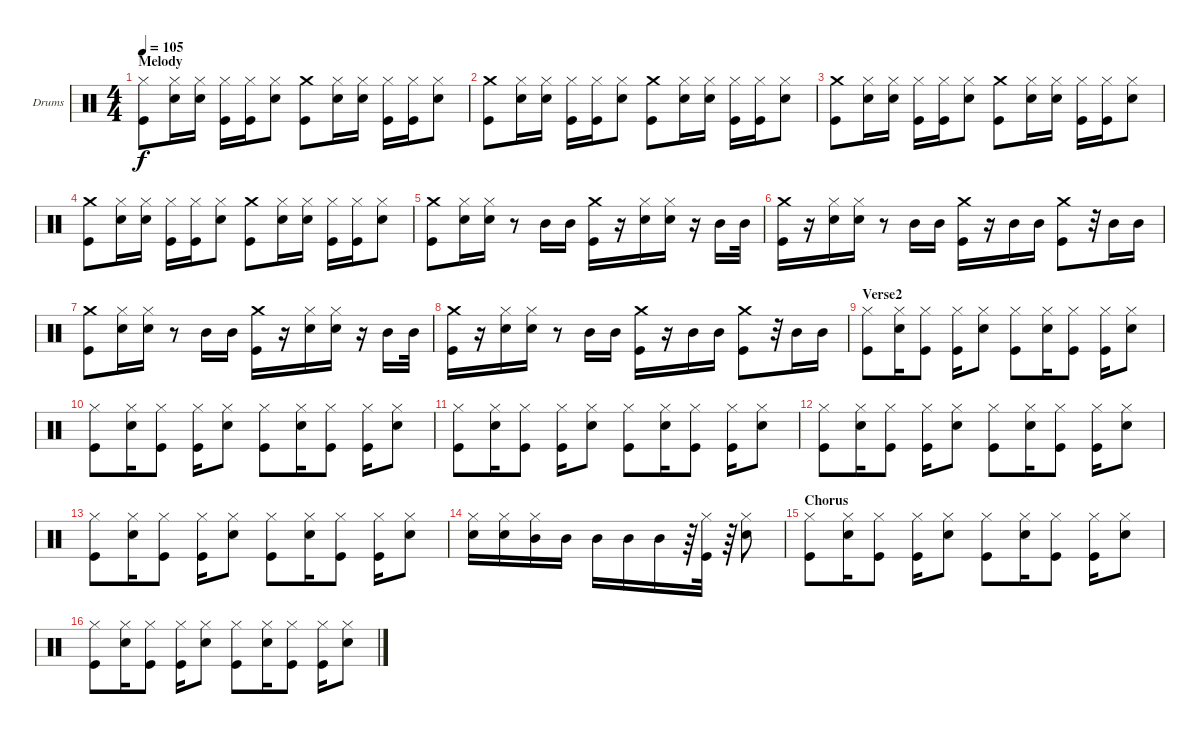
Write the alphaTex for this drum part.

\defaultSystemsLayout 4
\bracketExtendMode groupsimilarinstruments
\firstSystemTrackNameOrientation horizontal
\otherSystemsTrackNameOrientation horizontal
\track ("Drumkit" "Drums") {instrument percussion}
\staff {score}
\articulation defaults
\ts (4 4)
\section ("" "Melody")
\tempo 105
\clef neutral
\ks c
("Hi-Hat (closed)" "Kick (hit)").8{dy f} ("Hi-Hat (closed)" "Snare (hit) 2").16 ("Hi-Hat (closed)" "Snare (hit) 2").16 ("Hi-Hat (closed)" "Kick (hit)").16 ("Hi-Hat (closed)" "Kick (hit)").16 ("Hi-Hat (closed)" "Snare (hit) 2").8 ("Crash medium (hit)" "Kick (hit)").8 ("Hi-Hat (closed)" "Snare (hit) 2").16 ("Hi-Hat (closed)" "Snare (hit) 2").16 ("Hi-Hat (closed)" "Kick (hit)").16 ("Hi-Hat (closed)" "Kick (hit)").16 ("Hi-Hat (closed)" "Snare (hit) 2").8 |
("Crash medium (hit)" "Kick (hit)").8 ("Hi-Hat (closed)" "Snare (hit) 2").16 ("Hi-Hat (closed)" "Snare (hit) 2").16 ("Hi-Hat (closed)" "Kick (hit)").16 ("Hi-Hat (closed)" "Kick (hit)").16 ("Hi-Hat (closed)" "Snare (hit) 2").8 ("Crash medium (hit)" "Kick (hit)").8 ("Hi-Hat (closed)" "Snare (hit) 2").16 ("Hi-Hat (closed)" "Snare (hit) 2").16 ("Hi-Hat (closed)" "Kick (hit)").16 ("Hi-Hat (closed)" "Kick (hit)").16 ("Hi-Hat (closed)" "Snare (hit) 2").8 |
("Crash medium (hit)" "Kick (hit)").8 ("Hi-Hat (closed)" "Snare (hit) 2").16 ("Hi-Hat (closed)" "Snare (hit) 2").16 ("Hi-Hat (closed)" "Kick (hit)").16 ("Hi-Hat (closed)" "Kick (hit)").16 ("Hi-Hat (closed)" "Snare (hit) 2").8 ("Crash medium (hit)" "Kick (hit)").8 ("Hi-Hat (closed)" "Snare (hit) 2").16 ("Hi-Hat (closed)" "Snare (hit) 2").16 ("Hi-Hat (closed)" "Kick (hit)").16 ("Hi-Hat (closed)" "Kick (hit)").16 ("Hi-Hat (closed)" "Snare (hit) 2").8 |
("Crash medium (hit)" "Kick (hit)").8 ("Hi-Hat (closed)" "Snare (hit) 2").16 ("Hi-Hat (closed)" "Snare (hit) 2").16 ("Hi-Hat (closed)" "Kick (hit)").16 ("Hi-Hat (closed)" "Kick (hit)").16 ("Hi-Hat (closed)" "Snare (hit) 2").8 ("Crash medium (hit)" "Kick (hit)").8 ("Hi-Hat (closed)" "Snare (hit) 2").16 ("Hi-Hat (closed)" "Snare (hit) 2").16 ("Hi-Hat (closed)" "Kick (hit)").16 ("Hi-Hat (closed)" "Kick (hit)").16 ("Hi-Hat (closed)" "Snare (hit) 2").8 |
("Crash medium (hit)" "Kick (hit)").8 ("Hi-Hat (closed)" "Snare (hit) 2").16 ("Hi-Hat (closed)" "Snare (hit) 2").16 r.8 "Mid Tom (hit)".16 "Mid Tom (hit)".16 ("Crash medium (hit)" "Kick (hit)").16 r.16 ("Hi-Hat (closed)" "Snare (hit) 2").16 ("Hi-Hat (closed)" "Snare (hit) 2").16 r.16 "Mid Tom (hit)".16 "Mid Tom (hit)".32 |
("Crash medium (hit)" "Kick (hit)").16 r.16 ("Hi-Hat (closed)" "Snare (hit) 2").16 ("Hi-Hat (closed)" "Snare (hit) 2").16 r.8 "Mid Tom (hit)".16 "Mid Tom (hit)".16 ("Crash medium (hit)" "Kick (hit)").16 r.16 "Mid Tom (hit)".16 "Mid Tom (hit)".16 ("Crash medium (hit)" "Kick (hit)").8 r.32 "Mid Tom (hit)".16 "Mid Tom (hit)".16 |
("Crash medium (hit)" "Kick (hit)").8 ("Hi-Hat (closed)" "Snare (hit) 2").16 ("Hi-Hat (closed)" "Snare (hit) 2").16 r.8 "Mid Tom (hit)".16 "Mid Tom (hit)".16 ("Crash medium (hit)" "Kick (hit)").16 r.16 ("Hi-Hat (closed)" "Snare (hit) 2").16 ("Hi-Hat (closed)" "Snare (hit) 2").16 r.16 "Mid Tom (hit)".16 "Mid Tom (hit)".32 |
("Crash medium (hit)" "Kick (hit)").16 r.16 ("Hi-Hat (closed)" "Snare (hit) 2").16 ("Hi-Hat (closed)" "Snare (hit) 2").16 r.8 "Mid Tom (hit)".16 "Mid Tom (hit)".16 ("Crash medium (hit)" "Kick (hit)").16 r.16 "Mid Tom (hit)".16 "Mid Tom (hit)".16 ("Crash medium (hit)" "Kick (hit)").8 r.32 "Mid Tom (hit)".16 "Mid Tom (hit)".16 |
\section ("" "Verse2")
("Hi-Hat (closed)" "Kick (hit)").8 ("Hi-Hat (closed)" "Snare (hit) 2").16 ("Hi-Hat (closed)" "Kick (hit)").8 ("Hi-Hat (closed)" "Kick (hit)").16 ("Hi-Hat (closed)" "Snare (hit) 2").8 ("Hi-Hat (closed)" "Kick (hit)").8 ("Hi-Hat (closed)" "Snare (hit) 2").16 ("Hi-Hat (closed)" "Kick (hit)").8 ("Hi-Hat (closed)" "Kick (hit)").16 ("Hi-Hat (closed)" "Snare (hit) 2").8 |
("Hi-Hat (closed)" "Kick (hit)").8 ("Hi-Hat (closed)" "Snare (hit) 2").16 ("Hi-Hat (closed)" "Kick (hit)").8 ("Hi-Hat (closed)" "Kick (hit)").16 ("Hi-Hat (closed)" "Snare (hit) 2").8 ("Hi-Hat (closed)" "Kick (hit)").8 ("Hi-Hat (closed)" "Snare (hit) 2").16 ("Hi-Hat (closed)" "Kick (hit)").8 ("Hi-Hat (closed)" "Kick (hit)").16 ("Hi-Hat (closed)" "Snare (hit) 2").8 |
("Hi-Hat (closed)" "Kick (hit)").8 ("Hi-Hat (closed)" "Snare (hit) 2").16 ("Hi-Hat (closed)" "Kick (hit)").8 ("Hi-Hat (closed)" "Kick (hit)").16 ("Hi-Hat (closed)" "Snare (hit) 2").8 ("Hi-Hat (closed)" "Kick (hit)").8 ("Hi-Hat (closed)" "Snare (hit) 2").16 ("Hi-Hat (closed)" "Kick (hit)").8 ("Hi-Hat (closed)" "Kick (hit)").16 ("Hi-Hat (closed)" "Snare (hit) 2").8 |
("Hi-Hat (closed)" "Kick (hit)").8 ("Hi-Hat (closed)" "Snare (hit) 2").16 ("Hi-Hat (closed)" "Kick (hit)").8 ("Hi-Hat (closed)" "Kick (hit)").16 ("Hi-Hat (closed)" "Snare (hit) 2").8 ("Hi-Hat (closed)" "Kick (hit)").8 ("Hi-Hat (closed)" "Snare (hit) 2").16 ("Hi-Hat (closed)" "Kick (hit)").8 ("Hi-Hat (closed)" "Kick (hit)").16 ("Hi-Hat (closed)" "Snare (hit) 2").8 |
("Hi-Hat (closed)" "Kick (hit)").8 ("Hi-Hat (closed)" "Snare (hit) 2").16 ("Hi-Hat (closed)" "Kick (hit)").8 ("Hi-Hat (closed)" "Kick (hit)").16 ("Hi-Hat (closed)" "Snare (hit) 2").8 ("Hi-Hat (closed)" "Kick (hit)").8 ("Hi-Hat (closed)" "Snare (hit) 2").16 ("Hi-Hat (closed)" "Kick (hit)").8 ("Hi-Hat (closed)" "Kick (hit)").16 ("Hi-Hat (closed)" "Snare (hit) 2").8 |
("Hi-Hat (closed)" "Snare (hit) 2").16 ("Hi-Hat (closed)" "Snare (hit) 2").16 ("Hi-Hat (closed)" "Mid Tom (hit)").16 "Mid Tom (hit)".16 "Mid Tom (hit)".16 "Mid Tom (hit)".16 "Mid Tom (hit)".16 r.64 ("Hi-Hat (closed)" "Kick (hit)").32 r.64 ("Hi-Hat (closed)" "Snare (hit) 2").8 |
\section ("" "Chorus")
("Hi-Hat (closed)" "Kick (hit)").8 ("Hi-Hat (closed)" "Snare (hit) 2").16 ("Hi-Hat (closed)" "Kick (hit)").8 ("Hi-Hat (closed)" "Kick (hit)").16 ("Hi-Hat (closed)" "Snare (hit) 2").8 ("Hi-Hat (closed)" "Kick (hit)").8 ("Hi-Hat (closed)" "Snare (hit) 2").16 ("Hi-Hat (closed)" "Kick (hit)").8 ("Hi-Hat (closed)" "Kick (hit)").16 ("Hi-Hat (closed)" "Snare (hit) 2").8 |
("Hi-Hat (closed)" "Kick (hit)").8 ("Hi-Hat (closed)" "Snare (hit) 2").16 ("Hi-Hat (closed)" "Kick (hit)").8 ("Hi-Hat (closed)" "Kick (hit)").16 ("Hi-Hat (closed)" "Snare (hit) 2").8 ("Hi-Hat (closed)" "Kick (hit)").8 ("Hi-Hat (closed)" "Snare (hit) 2").16 ("Hi-Hat (closed)" "Kick (hit)").8 ("Hi-Hat (closed)" "Kick (hit)").16 ("Hi-Hat (closed)" "Snare (hit) 2").8
